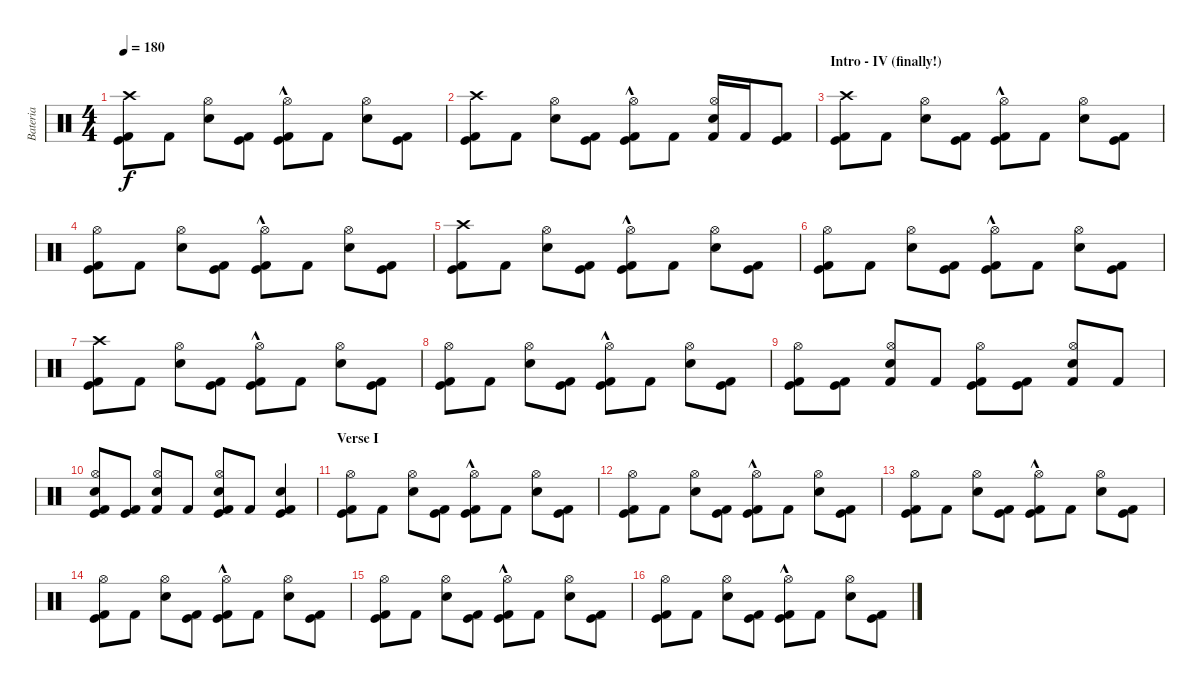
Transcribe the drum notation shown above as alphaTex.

\track ("Bateria" "Bateria") {instrument percussion}
\staff {score}
\articulation defaults
\ts (4 4)
\tempo 180
\clef neutral
\ks c
("Crash high (hit)" "Kick (hit)" "Kick (hit) 2").8{dy f} "Kick (hit) 2".8 ("Hi-Hat (open)" "Snare (hit) 2").8 ("Kick (hit)" "Kick (hit) 2").8 ("Hi-Hat (open)"{hac} "Kick (hit)" "Kick (hit) 2").8 "Kick (hit) 2".8 ("Hi-Hat (open)" "Snare (hit) 2").8 ("Kick (hit)" "Kick (hit) 2").8 |
("Crash high (hit)" "Kick (hit)" "Kick (hit) 2").8 "Kick (hit) 2".8 ("Hi-Hat (open)" "Snare (hit) 2").8 ("Kick (hit)" "Kick (hit) 2").8 ("Hi-Hat (open)"{hac} "Kick (hit)" "Kick (hit) 2").8 "Kick (hit) 2".8 ("Hi-Hat (open)" "Snare (hit) 2" "Kick (hit) 2").16 "Kick (hit) 2".16 ("Kick (hit)" "Kick (hit) 2").8 |
\section ("" "Intro - IV (finally!)")
("Crash high (hit)" "Kick (hit)" "Kick (hit) 2").8 "Kick (hit) 2".8 ("Hi-Hat (open)" "Snare (hit) 2").8 ("Kick (hit)" "Kick (hit) 2").8 ("Hi-Hat (open)"{hac} "Kick (hit)" "Kick (hit) 2").8 "Kick (hit) 2".8 ("Hi-Hat (open)" "Snare (hit) 2").8 ("Kick (hit)" "Kick (hit) 2").8 |
("Hi-Hat (open)" "Kick (hit)" "Kick (hit) 2").8 "Kick (hit) 2".8 ("Hi-Hat (open)" "Snare (hit) 2").8 ("Kick (hit)" "Kick (hit) 2").8 ("Hi-Hat (open)"{hac} "Kick (hit)" "Kick (hit) 2").8 "Kick (hit) 2".8 ("Hi-Hat (open)" "Snare (hit) 2").8 ("Kick (hit)" "Kick (hit) 2").8 |
("Crash high (hit)" "Kick (hit)" "Kick (hit) 2").8 "Kick (hit) 2".8 ("Hi-Hat (open)" "Snare (hit) 2").8 ("Kick (hit)" "Kick (hit) 2").8 ("Hi-Hat (open)"{hac} "Kick (hit)" "Kick (hit) 2").8 "Kick (hit) 2".8 ("Hi-Hat (open)" "Snare (hit) 2").8 ("Kick (hit)" "Kick (hit) 2").8 |
("Hi-Hat (open)" "Kick (hit)" "Kick (hit) 2").8 "Kick (hit) 2".8 ("Hi-Hat (open)" "Snare (hit) 2").8 ("Kick (hit)" "Kick (hit) 2").8 ("Hi-Hat (open)"{hac} "Kick (hit)" "Kick (hit) 2").8 "Kick (hit) 2".8 ("Hi-Hat (open)" "Snare (hit) 2").8 ("Kick (hit)" "Kick (hit) 2").8 |
("Crash high (hit)" "Kick (hit)" "Kick (hit) 2").8 "Kick (hit) 2".8 ("Hi-Hat (open)" "Snare (hit) 2").8 ("Kick (hit)" "Kick (hit) 2").8 ("Hi-Hat (open)"{hac} "Kick (hit)" "Kick (hit) 2").8 "Kick (hit) 2".8 ("Hi-Hat (open)" "Snare (hit) 2").8 ("Kick (hit)" "Kick (hit) 2").8 |
("Hi-Hat (open)" "Kick (hit)" "Kick (hit) 2").8 "Kick (hit) 2".8 ("Hi-Hat (open)" "Snare (hit) 2").8 ("Kick (hit)" "Kick (hit) 2").8 ("Hi-Hat (open)"{hac} "Kick (hit)" "Kick (hit) 2").8 "Kick (hit) 2".8 ("Hi-Hat (open)" "Snare (hit) 2").8 ("Kick (hit)" "Kick (hit) 2").8 |
("Hi-Hat (open)" "Kick (hit)" "Kick (hit) 2").8 ("Kick (hit)" "Kick (hit) 2").8 ("Hi-Hat (open)" "Snare (hit) 2" "Kick (hit) 2").8 "Kick (hit) 2".8 ("Hi-Hat (open)" "Kick (hit)" "Kick (hit) 2").8 ("Kick (hit)" "Kick (hit) 2").8 ("Hi-Hat (open)" "Snare (hit) 2" "Kick (hit) 2").8 "Kick (hit) 2".8 |
("Hi-Hat (open)" "Electric Snare (hit)" "Kick (hit)" "Kick (hit) 2").8 ("Kick (hit)" "Kick (hit) 2").8 ("Hi-Hat (open)" "Electric Snare (hit)" "Kick (hit) 2").8 "Kick (hit) 2".8 ("Hi-Hat (open)" "Electric Snare (hit)" "Kick (hit)" "Kick (hit) 2").8 "Kick (hit) 2".8 ("Snare (hit) 2" "Kick (hit)" "Kick (hit) 2").4 |
\section ("" "Verse I")
("Hi-Hat (open)" "Kick (hit)" "Kick (hit) 2").8 "Kick (hit) 2".8 ("Hi-Hat (open)" "Snare (hit) 2").8 ("Kick (hit)" "Kick (hit) 2").8 ("Hi-Hat (open)"{hac} "Kick (hit)" "Kick (hit) 2").8 "Kick (hit) 2".8 ("Hi-Hat (open)" "Snare (hit) 2").8 ("Kick (hit)" "Kick (hit) 2").8 |
("Hi-Hat (open)" "Kick (hit)" "Kick (hit) 2").8 "Kick (hit) 2".8 ("Hi-Hat (open)" "Snare (hit) 2").8 ("Kick (hit)" "Kick (hit) 2").8 ("Hi-Hat (open)"{hac} "Kick (hit)" "Kick (hit) 2").8 "Kick (hit) 2".8 ("Hi-Hat (open)" "Snare (hit) 2").8 ("Kick (hit)" "Kick (hit) 2").8 |
("Hi-Hat (open)" "Kick (hit)" "Kick (hit) 2").8 "Kick (hit) 2".8 ("Hi-Hat (open)" "Snare (hit) 2").8 ("Kick (hit)" "Kick (hit) 2").8 ("Hi-Hat (open)"{hac} "Kick (hit)" "Kick (hit) 2").8 "Kick (hit) 2".8 ("Hi-Hat (open)" "Snare (hit) 2").8 ("Kick (hit)" "Kick (hit) 2").8 |
("Hi-Hat (open)" "Kick (hit)" "Kick (hit) 2").8 "Kick (hit) 2".8 ("Hi-Hat (open)" "Snare (hit) 2").8 ("Kick (hit)" "Kick (hit) 2").8 ("Hi-Hat (open)"{hac} "Kick (hit)" "Kick (hit) 2").8 "Kick (hit) 2".8 ("Hi-Hat (open)" "Snare (hit) 2").8 ("Kick (hit)" "Kick (hit) 2").8 |
("Hi-Hat (open)" "Kick (hit)" "Kick (hit) 2").8 "Kick (hit) 2".8 ("Hi-Hat (open)" "Snare (hit) 2").8 ("Kick (hit)" "Kick (hit) 2").8 ("Hi-Hat (open)"{hac} "Kick (hit)" "Kick (hit) 2").8 "Kick (hit) 2".8 ("Hi-Hat (open)" "Snare (hit) 2").8 ("Kick (hit)" "Kick (hit) 2").8 |
("Hi-Hat (open)" "Kick (hit)" "Kick (hit) 2").8 "Kick (hit) 2".8 ("Hi-Hat (open)" "Snare (hit) 2").8 ("Kick (hit)" "Kick (hit) 2").8 ("Hi-Hat (open)"{hac} "Kick (hit)" "Kick (hit) 2").8 "Kick (hit) 2".8 ("Hi-Hat (open)" "Snare (hit) 2").8 ("Kick (hit)" "Kick (hit) 2").8
